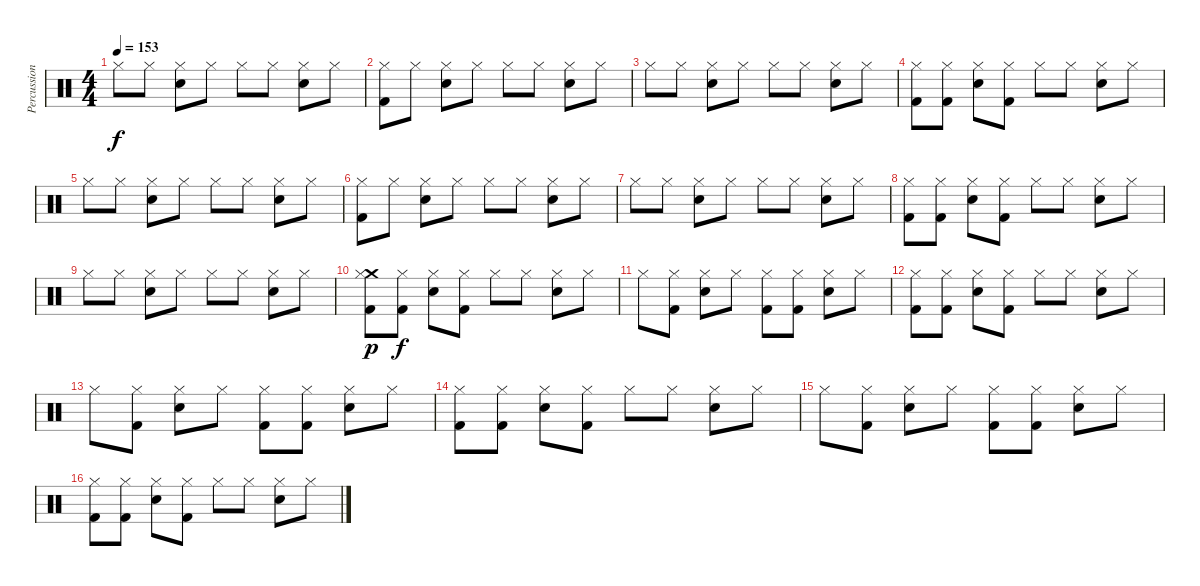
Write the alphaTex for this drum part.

\track ("Percussion" "Percussion") {instrument percussion}
\staff {score}
\articulation defaults
\ts (4 4)
\tempo 153
\clef neutral
\ks c "Hi-Hat (closed)".8{dy f} "Hi-Hat (closed)".8
("Hi-Hat (closed)" "Electric Snare (hit)").8 "Hi-Hat (closed)".8 "Hi-Hat (closed)".8 "Hi-Hat (closed)".8 ("Hi-Hat (closed)" "Electric Snare (hit)").8 "Hi-Hat (closed)".8 |
("Hi-Hat (closed)" "Kick (hit) 2").8 "Hi-Hat (closed)".8 ("Hi-Hat (closed)" "Electric Snare (hit)").8 "Hi-Hat (closed)".8 "Hi-Hat (closed)".8 "Hi-Hat (closed)".8 ("Hi-Hat (closed)" "Electric Snare (hit)").8 "Hi-Hat (closed)".8 |
"Hi-Hat (closed)".8 "Hi-Hat (closed)".8 ("Hi-Hat (closed)" "Electric Snare (hit)").8 "Hi-Hat (closed)".8 "Hi-Hat (closed)".8 "Hi-Hat (closed)".8 ("Hi-Hat (closed)" "Electric Snare (hit)").8 "Hi-Hat (closed)".8 |
("Hi-Hat (closed)" "Kick (hit) 2").8 ("Hi-Hat (closed)" "Kick (hit) 2").8 ("Hi-Hat (closed)" "Electric Snare (hit)").8 ("Hi-Hat (closed)" "Kick (hit) 2").8 "Hi-Hat (closed)".8 "Hi-Hat (closed)".8 ("Hi-Hat (closed)" "Electric Snare (hit)").8 "Hi-Hat (closed)".8 |
"Hi-Hat (closed)".8 "Hi-Hat (closed)".8 ("Hi-Hat (closed)" "Electric Snare (hit)").8 "Hi-Hat (closed)".8 "Hi-Hat (closed)".8 "Hi-Hat (closed)".8 ("Hi-Hat (closed)" "Electric Snare (hit)").8 "Hi-Hat (closed)".8 |
("Hi-Hat (closed)" "Kick (hit) 2").8 "Hi-Hat (closed)".8 ("Hi-Hat (closed)" "Electric Snare (hit)").8 "Hi-Hat (closed)".8 "Hi-Hat (closed)".8 "Hi-Hat (closed)".8 ("Hi-Hat (closed)" "Electric Snare (hit)").8 "Hi-Hat (closed)".8 |
"Hi-Hat (closed)".8 "Hi-Hat (closed)".8 ("Hi-Hat (closed)" "Electric Snare (hit)").8 "Hi-Hat (closed)".8 "Hi-Hat (closed)".8 "Hi-Hat (closed)".8 ("Hi-Hat (closed)" "Electric Snare (hit)").8 "Hi-Hat (closed)".8 |
("Hi-Hat (closed)" "Kick (hit) 2").8 ("Hi-Hat (closed)" "Kick (hit) 2").8 ("Hi-Hat (closed)" "Electric Snare (hit)").8 ("Hi-Hat (closed)" "Kick (hit) 2").8 "Hi-Hat (closed)".8 "Hi-Hat (closed)".8 ("Hi-Hat (closed)" "Electric Snare (hit)").8 "Hi-Hat (closed)".8 |
"Hi-Hat (closed)".8 "Hi-Hat (closed)".8 ("Hi-Hat (closed)" "Electric Snare (hit)").8 "Hi-Hat (closed)".8 "Hi-Hat (closed)".8 "Hi-Hat (closed)".8 ("Hi-Hat (closed)" "Electric Snare (hit)").8 "Hi-Hat (closed)".8 |
("Crash medium (hit)" "Hi-Hat (closed)" "Kick (hit) 2").8{dy p} ("Hi-Hat (closed)" "Kick (hit) 2").8{dy f} ("Hi-Hat (closed)" "Electric Snare (hit)").8 ("Hi-Hat (closed)" "Kick (hit) 2").8 "Hi-Hat (closed)".8 "Hi-Hat (closed)".8 ("Hi-Hat (closed)" "Electric Snare (hit)").8 "Hi-Hat (closed)".8 |
"Hi-Hat (closed)".8 ("Hi-Hat (closed)" "Kick (hit) 2").8 ("Hi-Hat (closed)" "Electric Snare (hit)").8 "Hi-Hat (closed)".8 ("Hi-Hat (closed)" "Kick (hit) 2").8 ("Hi-Hat (closed)" "Kick (hit) 2").8 ("Hi-Hat (closed)" "Electric Snare (hit)").8 "Hi-Hat (closed)".8 |
("Hi-Hat (closed)" "Kick (hit) 2").8 ("Hi-Hat (closed)" "Kick (hit) 2").8 ("Hi-Hat (closed)" "Electric Snare (hit)").8 ("Hi-Hat (closed)" "Kick (hit) 2").8 "Hi-Hat (closed)".8 "Hi-Hat (closed)".8 ("Hi-Hat (closed)" "Electric Snare (hit)").8 "Hi-Hat (closed)".8 |
"Hi-Hat (closed)".8 ("Hi-Hat (closed)" "Kick (hit) 2").8 ("Hi-Hat (closed)" "Electric Snare (hit)").8 "Hi-Hat (closed)".8 ("Hi-Hat (closed)" "Kick (hit) 2").8 ("Hi-Hat (closed)" "Kick (hit) 2").8 ("Hi-Hat (closed)" "Electric Snare (hit)").8 "Hi-Hat (closed)".8 |
("Hi-Hat (closed)" "Kick (hit) 2").8 ("Hi-Hat (closed)" "Kick (hit) 2").8 ("Hi-Hat (closed)" "Electric Snare (hit)").8 ("Hi-Hat (closed)" "Kick (hit) 2").8 "Hi-Hat (closed)".8 "Hi-Hat (closed)".8 ("Hi-Hat (closed)" "Electric Snare (hit)").8 "Hi-Hat (closed)".8 |
"Hi-Hat (closed)".8 ("Hi-Hat (closed)" "Kick (hit) 2").8 ("Hi-Hat (closed)" "Electric Snare (hit)").8 "Hi-Hat (closed)".8 ("Hi-Hat (closed)" "Kick (hit) 2").8 ("Hi-Hat (closed)" "Kick (hit) 2").8 ("Hi-Hat (closed)" "Electric Snare (hit)").8 "Hi-Hat (closed)".8 |
("Hi-Hat (closed)" "Kick (hit) 2").8 ("Hi-Hat (closed)" "Kick (hit) 2").8 ("Hi-Hat (closed)" "Electric Snare (hit)").8 ("Hi-Hat (closed)" "Kick (hit) 2").8 "Hi-Hat (closed)".8 "Hi-Hat (closed)".8 ("Hi-Hat (closed)" "Electric Snare (hit)").8 "Hi-Hat (closed)".8
